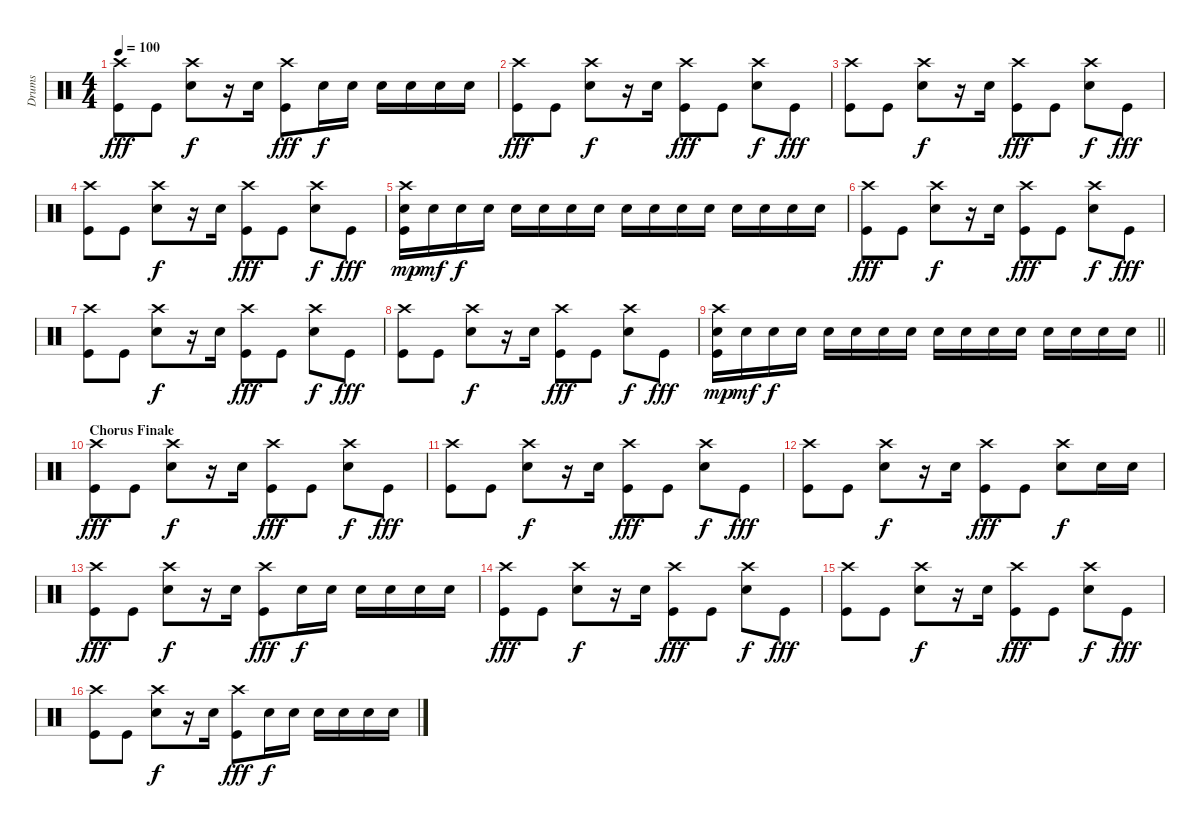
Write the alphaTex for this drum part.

\track ("Drums" "Drums") {instrument percussion}
\staff {score}
\articulation defaults
\ts (4 4)
\tempo 100
\clef neutral
\ks c
("Crash high (hit)" "Kick (hit)").8{dy fff} "Kick (hit)".8 ("Crash high (hit)" "Electric Snare (hit)").8{dy f} r.16 "Electric Snare (hit)".16 ("Crash high (hit)" "Kick (hit)").8{dy fff} "Electric Snare (hit)".16{dy f} "Electric Snare (hit)".16 "Electric Snare (hit)".16 "Electric Snare (hit)".16 "Electric Snare (hit)".16 "Electric Snare (hit)".16 |
("Crash high (hit)" "Kick (hit)").8{dy fff} "Kick (hit)".8 ("Crash high (hit)" "Electric Snare (hit)").8{dy f} r.16 "Electric Snare (hit)".16 ("Crash high (hit)" "Kick (hit)").8{dy fff} "Kick (hit)".8 ("Crash high (hit)" "Electric Snare (hit)").8{dy f} "Kick (hit)".8{dy fff} |
("Crash high (hit)" "Kick (hit)").8 "Kick (hit)".8 ("Crash high (hit)" "Electric Snare (hit)").8{dy f} r.16 "Electric Snare (hit)".16 ("Crash high (hit)" "Kick (hit)").8{dy fff} "Kick (hit)".8 ("Crash high (hit)" "Electric Snare (hit)").8{dy f} "Kick (hit)".8{dy fff} |
("Crash high (hit)" "Kick (hit)").8 "Kick (hit)".8 ("Crash high (hit)" "Electric Snare (hit)").8{dy f} r.16 "Electric Snare (hit)".16 ("Crash high (hit)" "Kick (hit)").8{dy fff} "Kick (hit)".8 ("Crash high (hit)" "Electric Snare (hit)").8{dy f} "Kick (hit)".8{dy fff} |
("Crash high (hit)" "Electric Snare (hit)" "Kick (hit)").16{dy mp} "Electric Snare (hit)".16{dy mf} "Electric Snare (hit)".16{dy f} "Electric Snare (hit)".16 "Electric Snare (hit)".16 "Electric Snare (hit)".16 "Electric Snare (hit)".16 "Electric Snare (hit)".16 "Electric Snare (hit)".16 "Electric Snare (hit)".16 "Electric Snare (hit)".16 "Electric Snare (hit)".16 "Electric Snare (hit)".16 "Electric Snare (hit)".16 "Electric Snare (hit)".16 "Electric Snare (hit)".16 |
("Crash high (hit)" "Kick (hit)").8{dy fff} "Kick (hit)".8 ("Crash high (hit)" "Electric Snare (hit)").8{dy f} r.16 "Electric Snare (hit)".16 ("Crash high (hit)" "Kick (hit)").8{dy fff} "Kick (hit)".8 ("Crash high (hit)" "Electric Snare (hit)").8{dy f} "Kick (hit)".8{dy fff} |
("Crash high (hit)" "Kick (hit)").8 "Kick (hit)".8 ("Crash high (hit)" "Electric Snare (hit)").8{dy f} r.16 "Electric Snare (hit)".16 ("Crash high (hit)" "Kick (hit)").8{dy fff} "Kick (hit)".8 ("Crash high (hit)" "Electric Snare (hit)").8{dy f} "Kick (hit)".8{dy fff} |
("Crash high (hit)" "Kick (hit)").8 "Kick (hit)".8 ("Crash high (hit)" "Electric Snare (hit)").8{dy f} r.16 "Electric Snare (hit)".16 ("Crash high (hit)" "Kick (hit)").8{dy fff} "Kick (hit)".8 ("Crash high (hit)" "Electric Snare (hit)").8{dy f} "Kick (hit)".8{dy fff} |
\barLineRight lightlight
("Crash high (hit)" "Electric Snare (hit)" "Kick (hit)").16{dy mp} "Electric Snare (hit)".16{dy mf} "Electric Snare (hit)".16{dy f} "Electric Snare (hit)".16 "Electric Snare (hit)".16 "Electric Snare (hit)".16 "Electric Snare (hit)".16 "Electric Snare (hit)".16 "Electric Snare (hit)".16 "Electric Snare (hit)".16 "Electric Snare (hit)".16 "Electric Snare (hit)".16 "Electric Snare (hit)".16 "Electric Snare (hit)".16 "Electric Snare (hit)".16 "Electric Snare (hit)".16 |
\section ("" "Chorus Finale")
("Crash high (hit)" "Kick (hit)").8{dy fff} "Kick (hit)".8 ("Crash high (hit)" "Electric Snare (hit)").8{dy f} r.16 "Electric Snare (hit)".16 ("Crash high (hit)" "Kick (hit)").8{dy fff} "Kick (hit)".8 ("Crash high (hit)" "Electric Snare (hit)").8{dy f} "Kick (hit)".8{dy fff} |
("Crash high (hit)" "Kick (hit)").8 "Kick (hit)".8 ("Crash high (hit)" "Electric Snare (hit)").8{dy f} r.16 "Electric Snare (hit)".16 ("Crash high (hit)" "Kick (hit)").8{dy fff} "Kick (hit)".8 ("Crash high (hit)" "Electric Snare (hit)").8{dy f} "Kick (hit)".8{dy fff} |
("Crash high (hit)" "Kick (hit)").8 "Kick (hit)".8 ("Crash high (hit)" "Electric Snare (hit)").8{dy f} r.16 "Electric Snare (hit)".16 ("Crash high (hit)" "Kick (hit)").8{dy fff} "Kick (hit)".8 ("Crash high (hit)" "Electric Snare (hit)").8{dy f} "Electric Snare (hit)".16 "Electric Snare (hit)".16 |
("Crash high (hit)" "Kick (hit)").8{dy fff} "Kick (hit)".8 ("Crash high (hit)" "Electric Snare (hit)").8{dy f} r.16 "Electric Snare (hit)".16 ("Crash high (hit)" "Kick (hit)").8{dy fff} "Electric Snare (hit)".16{dy f} "Electric Snare (hit)".16 "Electric Snare (hit)".16 "Electric Snare (hit)".16 "Electric Snare (hit)".16 "Electric Snare (hit)".16 |
("Crash high (hit)" "Kick (hit)").8{dy fff} "Kick (hit)".8 ("Crash high (hit)" "Electric Snare (hit)").8{dy f} r.16 "Electric Snare (hit)".16 ("Crash high (hit)" "Kick (hit)").8{dy fff} "Kick (hit)".8 ("Crash high (hit)" "Electric Snare (hit)").8{dy f} "Kick (hit)".8{dy fff} |
("Crash high (hit)" "Kick (hit)").8 "Kick (hit)".8 ("Crash high (hit)" "Electric Snare (hit)").8{dy f} r.16 "Electric Snare (hit)".16 ("Crash high (hit)" "Kick (hit)").8{dy fff} "Kick (hit)".8 ("Crash high (hit)" "Electric Snare (hit)").8{dy f} "Kick (hit)".8{dy fff} |
("Crash high (hit)" "Kick (hit)").8 "Kick (hit)".8 ("Crash high (hit)" "Electric Snare (hit)").8{dy f} r.16 "Electric Snare (hit)".16 ("Crash high (hit)" "Kick (hit)").8{dy fff} "Electric Snare (hit)".16{dy f} "Electric Snare (hit)".16 "Electric Snare (hit)".16 "Electric Snare (hit)".16 "Electric Snare (hit)".16 "Electric Snare (hit)".16
